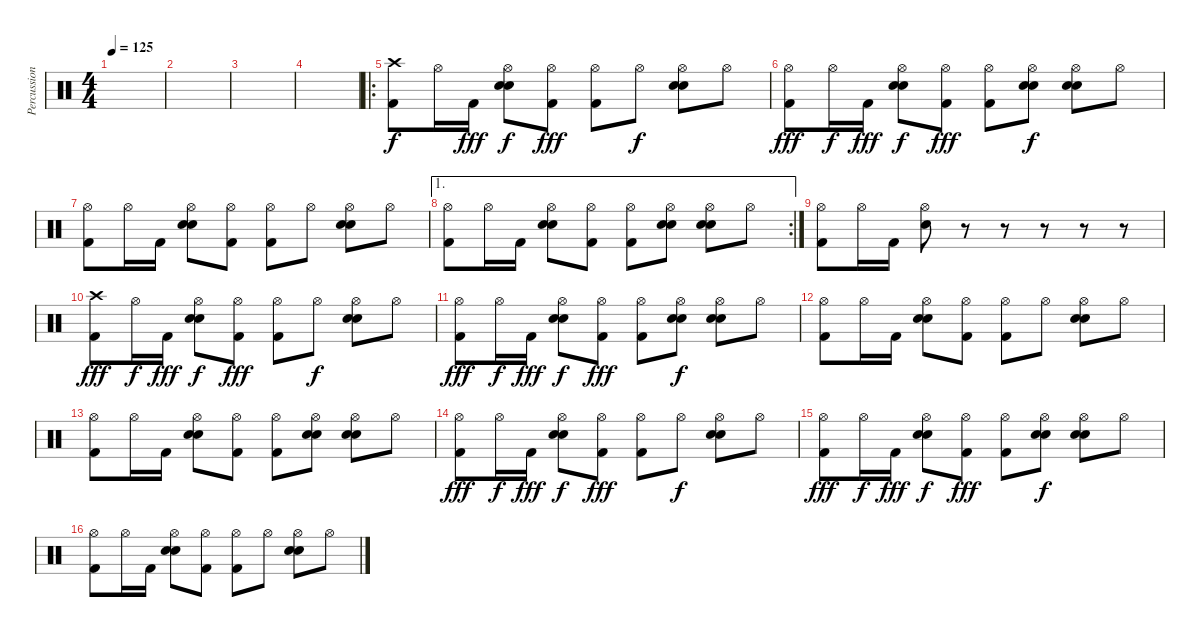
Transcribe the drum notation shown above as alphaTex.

\track ("Percussion" "Percussion") {instrument percussion}
\staff {score}
\articulation defaults
\ts (4 4)
\tempo 125
\clef neutral
\ks c
|
|
|
|
\ro
("Crash high (hit)" "Kick (hit) 2").8 "Hi-Hat (open)".16{dy f} "Kick (hit) 2".16{dy fff} ("Hand Clap (hit)" "Hi-Hat (open)" "Electric Snare (hit)").8{dy f} ("Hi-Hat (open)" "Kick (hit) 2").8{dy fff} ("Hi-Hat (open)" "Kick (hit) 2").8 "Hi-Hat (open)".8{dy f} ("Hand Clap (hit)" "Hi-Hat (open)" "Electric Snare (hit)").8 "Hi-Hat (open)".8 |
("Hi-Hat (open)" "Kick (hit) 2").8{dy fff} "Hi-Hat (open)".16{dy f} "Kick (hit) 2".16{dy fff} ("Hand Clap (hit)" "Hi-Hat (open)" "Electric Snare (hit)").8{dy f} ("Hi-Hat (open)" "Kick (hit) 2").8{dy fff} ("Hi-Hat (open)" "Kick (hit) 2").8 ("Hand Clap (hit)" "Hi-Hat (open)" "Electric Snare (hit)").8{dy f} ("Hand Clap (hit)" "Hi-Hat (open)" "Electric Snare (hit)").8 "Hi-Hat (open)".8 |
("Hi-Hat (open)" "Kick (hit) 2").8 "Hi-Hat (open)".16 "Kick (hit) 2".16 ("Hand Clap (hit)" "Hi-Hat (open)" "Electric Snare (hit)").8 ("Hi-Hat (open)" "Kick (hit) 2").8 ("Hi-Hat (open)" "Kick (hit) 2").8 "Hi-Hat (open)".8 ("Hand Clap (hit)" "Hi-Hat (open)" "Electric Snare (hit)").8 "Hi-Hat (open)".8 |
\ae 1
\rc 2
("Hi-Hat (open)" "Kick (hit) 2").8 "Hi-Hat (open)".16 "Kick (hit) 2".16 ("Hand Clap (hit)" "Hi-Hat (open)" "Electric Snare (hit)").8 ("Hi-Hat (open)" "Kick (hit) 2").8 ("Hi-Hat (open)" "Kick (hit) 2").8 ("Hand Clap (hit)" "Hi-Hat (open)" "Electric Snare (hit)").8 ("Hand Clap (hit)" "Hi-Hat (open)" "Electric Snare (hit)").8 "Hi-Hat (open)".8 |
("Hi-Hat (open)" "Kick (hit) 2").8 "Hi-Hat (open)".16 "Kick (hit) 2".16 ("Hi-Hat (open)" "Electric Snare (hit)").8 r.8 r.8 r.8 r.8 r.8 |
("Crash high (hit)" "Kick (hit) 2").8{dy fff} "Hi-Hat (open)".16{dy f} "Kick (hit) 2".16{dy fff} ("Hand Clap (hit)" "Hi-Hat (open)" "Electric Snare (hit)").8{dy f} ("Hi-Hat (open)" "Kick (hit) 2").8{dy fff} ("Hi-Hat (open)" "Kick (hit) 2").8 "Hi-Hat (open)".8{dy f} ("Hand Clap (hit)" "Hi-Hat (open)" "Electric Snare (hit)").8 "Hi-Hat (open)".8 |
("Hi-Hat (open)" "Kick (hit) 2").8{dy fff} "Hi-Hat (open)".16{dy f} "Kick (hit) 2".16{dy fff} ("Hand Clap (hit)" "Hi-Hat (open)" "Electric Snare (hit)").8{dy f} ("Hi-Hat (open)" "Kick (hit) 2").8{dy fff} ("Hi-Hat (open)" "Kick (hit) 2").8 ("Hand Clap (hit)" "Hi-Hat (open)" "Electric Snare (hit)").8{dy f} ("Hand Clap (hit)" "Hi-Hat (open)" "Electric Snare (hit)").8 "Hi-Hat (open)".8 |
("Hi-Hat (open)" "Kick (hit) 2").8 "Hi-Hat (open)".16 "Kick (hit) 2".16 ("Hand Clap (hit)" "Hi-Hat (open)" "Electric Snare (hit)").8 ("Hi-Hat (open)" "Kick (hit) 2").8 ("Hi-Hat (open)" "Kick (hit) 2").8 "Hi-Hat (open)".8 ("Hand Clap (hit)" "Hi-Hat (open)" "Electric Snare (hit)").8 "Hi-Hat (open)".8 |
("Hi-Hat (open)" "Kick (hit) 2").8 "Hi-Hat (open)".16 "Kick (hit) 2".16 ("Hand Clap (hit)" "Hi-Hat (open)" "Electric Snare (hit)").8 ("Hi-Hat (open)" "Kick (hit) 2").8 ("Hi-Hat (open)" "Kick (hit) 2").8 ("Hand Clap (hit)" "Hi-Hat (open)" "Electric Snare (hit)").8 ("Hand Clap (hit)" "Hi-Hat (open)" "Electric Snare (hit)").8 "Hi-Hat (open)".8 |
("Hi-Hat (open)" "Kick (hit) 2").8{dy fff} "Hi-Hat (open)".16{dy f} "Kick (hit) 2".16{dy fff} ("Hand Clap (hit)" "Hi-Hat (open)" "Electric Snare (hit)").8{dy f} ("Hi-Hat (open)" "Kick (hit) 2").8{dy fff} ("Hi-Hat (open)" "Kick (hit) 2").8 "Hi-Hat (open)".8{dy f} ("Hand Clap (hit)" "Hi-Hat (open)" "Electric Snare (hit)").8 "Hi-Hat (open)".8 |
("Hi-Hat (open)" "Kick (hit) 2").8{dy fff} "Hi-Hat (open)".16{dy f} "Kick (hit) 2".16{dy fff} ("Hand Clap (hit)" "Hi-Hat (open)" "Electric Snare (hit)").8{dy f} ("Hi-Hat (open)" "Kick (hit) 2").8{dy fff} ("Hi-Hat (open)" "Kick (hit) 2").8 ("Hand Clap (hit)" "Hi-Hat (open)" "Electric Snare (hit)").8{dy f} ("Hand Clap (hit)" "Hi-Hat (open)" "Electric Snare (hit)").8 "Hi-Hat (open)".8 |
("Hi-Hat (open)" "Kick (hit) 2").8 "Hi-Hat (open)".16 "Kick (hit) 2".16 ("Hand Clap (hit)" "Hi-Hat (open)" "Electric Snare (hit)").8 ("Hi-Hat (open)" "Kick (hit) 2").8 ("Hi-Hat (open)" "Kick (hit) 2").8 "Hi-Hat (open)".8 ("Hand Clap (hit)" "Hi-Hat (open)" "Electric Snare (hit)").8 "Hi-Hat (open)".8
